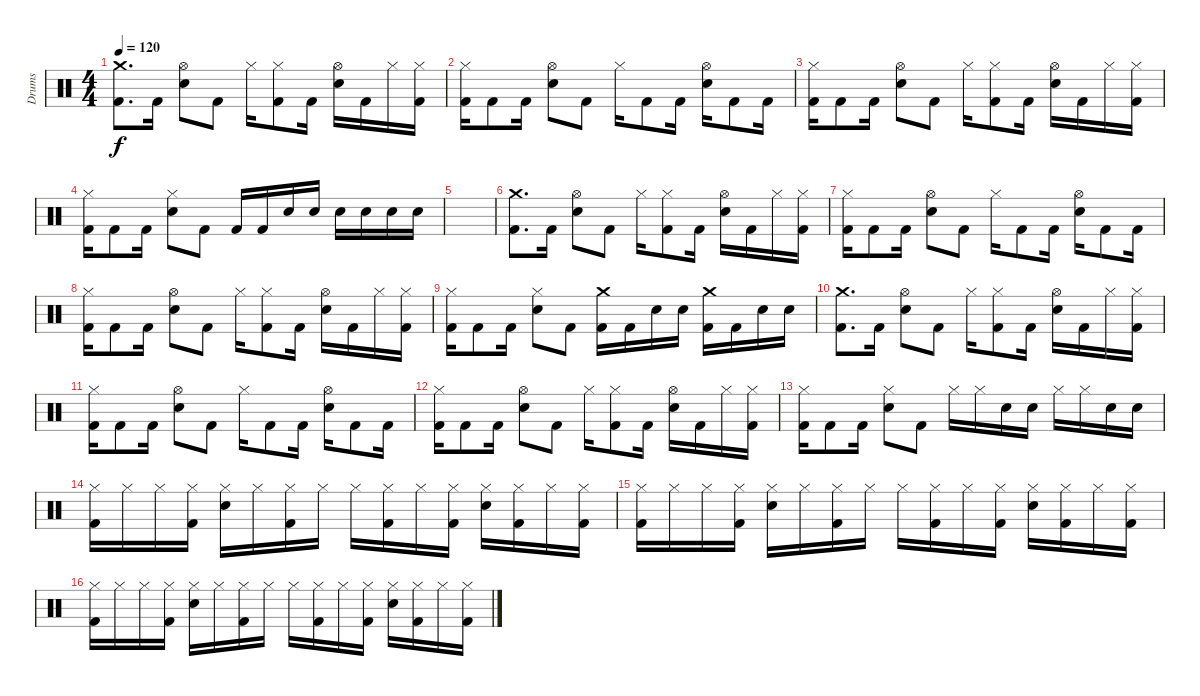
\track ("Drums" "Drums") {instrument percussion}
\staff {score}
\articulation defaults
\ts (4 4)
\tempo 120
\clef neutral
\ks c
("Crash medium (hit)" "Kick (hit) 2").8{d dy f} "Kick (hit) 2".16 ("Hi-Hat (open)" "Snare (hit) 2").8 "Kick (hit) 2".8 "Hi-Hat (closed)".16 ("Hi-Hat (closed)" "Kick (hit) 2").8 "Kick (hit) 2".16 ("Hi-Hat (open)" "Snare (hit) 2").16 "Kick (hit) 2".16 "Hi-Hat (closed)".16 ("Hi-Hat (closed)" "Kick (hit) 2").16 |
("Hi-Hat (closed)" "Kick (hit) 2").16 "Kick (hit) 2".8 "Kick (hit) 2".16 ("Hi-Hat (open)" "Snare (hit) 2").8 "Kick (hit) 2".8 "Hi-Hat (closed)".16 "Kick (hit) 2".8 "Kick (hit) 2".16 ("Hi-Hat (open)" "Snare (hit) 2").16 "Kick (hit) 2".8 "Kick (hit) 2".16 |
("Hi-Hat (closed)" "Kick (hit) 2").16 "Kick (hit) 2".8 "Kick (hit) 2".16 ("Hi-Hat (open)" "Snare (hit) 2").8 "Kick (hit) 2".8 "Hi-Hat (closed)".16 ("Hi-Hat (closed)" "Kick (hit) 2").8 "Kick (hit) 2".16 ("Hi-Hat (open)" "Snare (hit) 2").16 "Kick (hit) 2".16 "Hi-Hat (closed)".16 ("Hi-Hat (closed)" "Kick (hit) 2").16 |
("Hi-Hat (closed)" "Kick (hit) 2").16 "Kick (hit) 2".8 "Kick (hit) 2".16 ("Hi-Hat (closed)" "Snare (hit) 2").8 "Kick (hit) 2".8 "Kick (hit) 2".16 "Kick (hit) 2".16 "Snare (hit) 2".16 "Snare (hit) 2".16 "Snare (hit) 2".16 "Snare (hit) 2".16 "Snare (hit) 2".16 "Snare (hit) 2".16 |
|
("Crash medium (hit)" "Kick (hit) 2").8{d} "Kick (hit) 2".16 ("Hi-Hat (open)" "Snare (hit) 2").8 "Kick (hit) 2".8 "Hi-Hat (closed)".16 ("Hi-Hat (closed)" "Kick (hit) 2").8 "Kick (hit) 2".16 ("Hi-Hat (open)" "Snare (hit) 2").16 "Kick (hit) 2".16 "Hi-Hat (closed)".16 ("Hi-Hat (closed)" "Kick (hit) 2").16 |
("Hi-Hat (closed)" "Kick (hit) 2").16 "Kick (hit) 2".8 "Kick (hit) 2".16 ("Hi-Hat (open)" "Snare (hit) 2").8 "Kick (hit) 2".8 "Hi-Hat (closed)".16 "Kick (hit) 2".8 "Kick (hit) 2".16 ("Hi-Hat (open)" "Snare (hit) 2").16 "Kick (hit) 2".8 "Kick (hit) 2".16 |
("Hi-Hat (closed)" "Kick (hit) 2").16 "Kick (hit) 2".8 "Kick (hit) 2".16 ("Hi-Hat (open)" "Snare (hit) 2").8 "Kick (hit) 2".8 "Hi-Hat (closed)".16 ("Hi-Hat (closed)" "Kick (hit) 2").8 "Kick (hit) 2".16 ("Hi-Hat (open)" "Snare (hit) 2").16 "Kick (hit) 2".16 "Hi-Hat (closed)".16 ("Hi-Hat (closed)" "Kick (hit) 2").16 |
("Hi-Hat (closed)" "Kick (hit) 2").16 "Kick (hit) 2".8 "Kick (hit) 2".16 ("Hi-Hat (closed)" "Snare (hit) 2").8 "Kick (hit) 2".8 ("Crash medium (hit)" "Kick (hit) 2").16 "Kick (hit) 2".16 "Snare (hit) 2".16 "Snare (hit) 2".16 ("Crash medium (hit)" "Kick (hit) 2").16 "Kick (hit) 2".16 "Snare (hit) 2".16 "Snare (hit) 2".16 |
("Crash medium (hit)" "Kick (hit) 2").8{d} "Kick (hit) 2".16 ("Hi-Hat (open)" "Snare (hit) 2").8 "Kick (hit) 2".8 "Hi-Hat (closed)".16 ("Hi-Hat (closed)" "Kick (hit) 2").8 "Kick (hit) 2".16 ("Hi-Hat (open)" "Snare (hit) 2").16 "Kick (hit) 2".16 "Hi-Hat (closed)".16 ("Hi-Hat (closed)" "Kick (hit) 2").16 |
("Hi-Hat (closed)" "Kick (hit) 2").16 "Kick (hit) 2".8 "Kick (hit) 2".16 ("Hi-Hat (open)" "Snare (hit) 2").8 "Kick (hit) 2".8 "Hi-Hat (closed)".16 "Kick (hit) 2".8 "Kick (hit) 2".16 ("Hi-Hat (open)" "Snare (hit) 2").16 "Kick (hit) 2".8 "Kick (hit) 2".16 |
("Hi-Hat (closed)" "Kick (hit) 2").16 "Kick (hit) 2".8 "Kick (hit) 2".16 ("Hi-Hat (open)" "Snare (hit) 2").8 "Kick (hit) 2".8 "Hi-Hat (closed)".16 ("Hi-Hat (closed)" "Kick (hit) 2").8 "Kick (hit) 2".16 ("Hi-Hat (open)" "Snare (hit) 2").16 "Kick (hit) 2".16 "Hi-Hat (closed)".16 ("Hi-Hat (closed)" "Kick (hit) 2").16 |
("Hi-Hat (closed)" "Kick (hit) 2").16 "Kick (hit) 2".8 "Kick (hit) 2".16 ("Hi-Hat (closed)" "Snare (hit) 2").8 "Kick (hit) 2".8 "Hi-Hat (closed)".16 "Hi-Hat (closed)".16 "Snare (hit) 2".16 "Snare (hit) 2".16 "Hi-Hat (closed)".16 "Hi-Hat (closed)".16 "Snare (hit) 2".16 "Snare (hit) 2".16 |
("Hi-Hat (closed)" "Kick (hit) 2").16 "Hi-Hat (closed)".16 "Hi-Hat (closed)".16 ("Hi-Hat (closed)" "Kick (hit) 2").16 ("Hi-Hat (closed)" "Snare (hit) 2").16 "Hi-Hat (closed)".16 ("Hi-Hat (closed)" "Kick (hit) 2").16 "Hi-Hat (closed)".16 "Hi-Hat (closed)".16 ("Hi-Hat (closed)" "Kick (hit) 2").16 "Hi-Hat (closed)".16 ("Hi-Hat (closed)" "Kick (hit) 2").16 ("Hi-Hat (closed)" "Snare (hit) 2").16 ("Hi-Hat (closed)" "Kick (hit) 2").16 "Hi-Hat (closed)".16 ("Hi-Hat (closed)" "Kick (hit) 2").16 |
("Hi-Hat (closed)" "Kick (hit) 2").16 "Hi-Hat (closed)".16 "Hi-Hat (closed)".16 ("Hi-Hat (closed)" "Kick (hit) 2").16 ("Hi-Hat (closed)" "Snare (hit) 2").16 "Hi-Hat (closed)".16 ("Hi-Hat (closed)" "Kick (hit) 2").16 "Hi-Hat (closed)".16 "Hi-Hat (closed)".16 ("Hi-Hat (closed)" "Kick (hit) 2").16 "Hi-Hat (closed)".16 ("Hi-Hat (closed)" "Kick (hit) 2").16 ("Hi-Hat (closed)" "Snare (hit) 2").16 ("Hi-Hat (closed)" "Kick (hit) 2").16 "Hi-Hat (closed)".16 ("Hi-Hat (closed)" "Kick (hit) 2").16 |
("Hi-Hat (closed)" "Kick (hit) 2").16 "Hi-Hat (closed)".16 "Hi-Hat (closed)".16 ("Hi-Hat (closed)" "Kick (hit) 2").16 ("Hi-Hat (closed)" "Snare (hit) 2").16 "Hi-Hat (closed)".16 ("Hi-Hat (closed)" "Kick (hit) 2").16 "Hi-Hat (closed)".16 "Hi-Hat (closed)".16 ("Hi-Hat (closed)" "Kick (hit) 2").16 "Hi-Hat (closed)".16 ("Hi-Hat (closed)" "Kick (hit) 2").16 ("Hi-Hat (closed)" "Snare (hit) 2").16 ("Hi-Hat (closed)" "Kick (hit) 2").16 "Hi-Hat (closed)".16 ("Hi-Hat (closed)" "Kick (hit) 2").16
